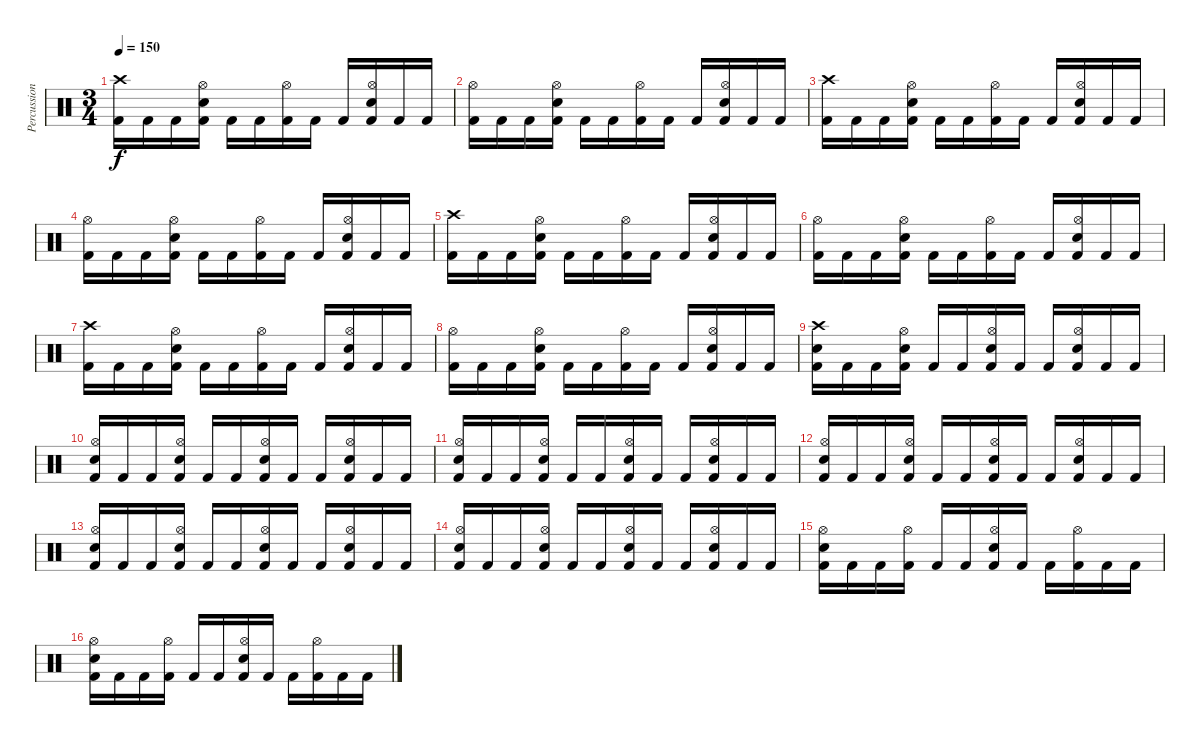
\track ("Percussion" "Percussion") {instrument percussion}
\staff {score}
\articulation defaults
\ts (3 4)
\tempo 150
\clef neutral
\ks c
("Crash high (hit)" "Kick (hit) 2").16{dy f} "Kick (hit) 2".16 "Kick (hit) 2".16 ("Hi-Hat (open)" "Electric Snare (hit)" "Kick (hit) 2").16 "Kick (hit) 2".16 "Kick (hit) 2".16 ("Hi-Hat (open)" "Kick (hit) 2").16 "Kick (hit) 2".16 "Kick (hit) 2".16 ("Hi-Hat (open)" "Electric Snare (hit)" "Kick (hit) 2").16 "Kick (hit) 2".16 "Kick (hit) 2".16 |
("Hi-Hat (open)" "Kick (hit) 2").16 "Kick (hit) 2".16 "Kick (hit) 2".16 ("Hi-Hat (open)" "Electric Snare (hit)" "Kick (hit) 2").16 "Kick (hit) 2".16 "Kick (hit) 2".16 ("Hi-Hat (open)" "Kick (hit) 2").16 "Kick (hit) 2".16 "Kick (hit) 2".16 ("Hi-Hat (open)" "Electric Snare (hit)" "Kick (hit) 2").16 "Kick (hit) 2".16 "Kick (hit) 2".16 |
("Crash high (hit)" "Kick (hit) 2").16 "Kick (hit) 2".16 "Kick (hit) 2".16 ("Hi-Hat (open)" "Electric Snare (hit)" "Kick (hit) 2").16 "Kick (hit) 2".16 "Kick (hit) 2".16 ("Hi-Hat (open)" "Kick (hit) 2").16 "Kick (hit) 2".16 "Kick (hit) 2".16 ("Hi-Hat (open)" "Electric Snare (hit)" "Kick (hit) 2").16 "Kick (hit) 2".16 "Kick (hit) 2".16 |
("Hi-Hat (open)" "Kick (hit) 2").16 "Kick (hit) 2".16 "Kick (hit) 2".16 ("Hi-Hat (open)" "Electric Snare (hit)" "Kick (hit) 2").16 "Kick (hit) 2".16 "Kick (hit) 2".16 ("Hi-Hat (open)" "Kick (hit) 2").16 "Kick (hit) 2".16 "Kick (hit) 2".16 ("Hi-Hat (open)" "Electric Snare (hit)" "Kick (hit) 2").16 "Kick (hit) 2".16 "Kick (hit) 2".16 |
("Crash high (hit)" "Kick (hit) 2").16 "Kick (hit) 2".16 "Kick (hit) 2".16 ("Hi-Hat (open)" "Electric Snare (hit)" "Kick (hit) 2").16 "Kick (hit) 2".16 "Kick (hit) 2".16 ("Hi-Hat (open)" "Kick (hit) 2").16 "Kick (hit) 2".16 "Kick (hit) 2".16 ("Hi-Hat (open)" "Electric Snare (hit)" "Kick (hit) 2").16 "Kick (hit) 2".16 "Kick (hit) 2".16 |
("Hi-Hat (open)" "Kick (hit) 2").16 "Kick (hit) 2".16 "Kick (hit) 2".16 ("Hi-Hat (open)" "Electric Snare (hit)" "Kick (hit) 2").16 "Kick (hit) 2".16 "Kick (hit) 2".16 ("Hi-Hat (open)" "Kick (hit) 2").16 "Kick (hit) 2".16 "Kick (hit) 2".16 ("Hi-Hat (open)" "Electric Snare (hit)" "Kick (hit) 2").16 "Kick (hit) 2".16 "Kick (hit) 2".16 |
("Crash high (hit)" "Kick (hit) 2").16 "Kick (hit) 2".16 "Kick (hit) 2".16 ("Hi-Hat (open)" "Electric Snare (hit)" "Kick (hit) 2").16 "Kick (hit) 2".16 "Kick (hit) 2".16 ("Hi-Hat (open)" "Kick (hit) 2").16 "Kick (hit) 2".16 "Kick (hit) 2".16 ("Hi-Hat (open)" "Electric Snare (hit)" "Kick (hit) 2").16 "Kick (hit) 2".16 "Kick (hit) 2".16 |
("Hi-Hat (open)" "Kick (hit) 2").16 "Kick (hit) 2".16 "Kick (hit) 2".16 ("Hi-Hat (open)" "Electric Snare (hit)" "Kick (hit) 2").16 "Kick (hit) 2".16 "Kick (hit) 2".16 ("Hi-Hat (open)" "Kick (hit) 2").16 "Kick (hit) 2".16 "Kick (hit) 2".16 ("Hi-Hat (open)" "Electric Snare (hit)" "Kick (hit) 2").16 "Kick (hit) 2".16 "Kick (hit) 2".16 |
("Crash high (hit)" "Electric Snare (hit)" "Kick (hit) 2").16 "Kick (hit) 2".16 "Kick (hit) 2".16 ("Hi-Hat (open)" "Electric Snare (hit)" "Kick (hit) 2").16 "Kick (hit) 2".16 "Kick (hit) 2".16 ("Hi-Hat (open)" "Electric Snare (hit)" "Kick (hit) 2").16 "Kick (hit) 2".16 "Kick (hit) 2".16 ("Hi-Hat (open)" "Electric Snare (hit)" "Kick (hit) 2").16 "Kick (hit) 2".16 "Kick (hit) 2".16 |
("Hi-Hat (open)" "Electric Snare (hit)" "Kick (hit) 2").16 "Kick (hit) 2".16 "Kick (hit) 2".16 ("Hi-Hat (open)" "Electric Snare (hit)" "Kick (hit) 2").16 "Kick (hit) 2".16 "Kick (hit) 2".16 ("Hi-Hat (open)" "Electric Snare (hit)" "Kick (hit) 2").16 "Kick (hit) 2".16 "Kick (hit) 2".16 ("Hi-Hat (open)" "Electric Snare (hit)" "Kick (hit) 2").16 "Kick (hit) 2".16 "Kick (hit) 2".16 |
("Hi-Hat (open)" "Electric Snare (hit)" "Kick (hit) 2").16 "Kick (hit) 2".16 "Kick (hit) 2".16 ("Hi-Hat (open)" "Electric Snare (hit)" "Kick (hit) 2").16 "Kick (hit) 2".16 "Kick (hit) 2".16 ("Hi-Hat (open)" "Electric Snare (hit)" "Kick (hit) 2").16 "Kick (hit) 2".16 "Kick (hit) 2".16 ("Hi-Hat (open)" "Electric Snare (hit)" "Kick (hit) 2").16 "Kick (hit) 2".16 "Kick (hit) 2".16 |
("Hi-Hat (open)" "Electric Snare (hit)" "Kick (hit) 2").16 "Kick (hit) 2".16 "Kick (hit) 2".16 ("Hi-Hat (open)" "Electric Snare (hit)" "Kick (hit) 2").16 "Kick (hit) 2".16 "Kick (hit) 2".16 ("Hi-Hat (open)" "Electric Snare (hit)" "Kick (hit) 2").16 "Kick (hit) 2".16 "Kick (hit) 2".16 ("Hi-Hat (open)" "Electric Snare (hit)" "Kick (hit) 2").16 "Kick (hit) 2".16 "Kick (hit) 2".16 |
("Hi-Hat (open)" "Electric Snare (hit)" "Kick (hit) 2").16 "Kick (hit) 2".16 "Kick (hit) 2".16 ("Hi-Hat (open)" "Electric Snare (hit)" "Kick (hit) 2").16 "Kick (hit) 2".16 "Kick (hit) 2".16 ("Hi-Hat (open)" "Electric Snare (hit)" "Kick (hit) 2").16 "Kick (hit) 2".16 "Kick (hit) 2".16 ("Hi-Hat (open)" "Electric Snare (hit)" "Kick (hit) 2").16 "Kick (hit) 2".16 "Kick (hit) 2".16 |
("Hi-Hat (open)" "Electric Snare (hit)" "Kick (hit) 2").16 "Kick (hit) 2".16 "Kick (hit) 2".16 ("Hi-Hat (open)" "Electric Snare (hit)" "Kick (hit) 2").16 "Kick (hit) 2".16 "Kick (hit) 2".16 ("Hi-Hat (open)" "Electric Snare (hit)" "Kick (hit) 2").16 "Kick (hit) 2".16 "Kick (hit) 2".16 ("Hi-Hat (open)" "Electric Snare (hit)" "Kick (hit) 2").16 "Kick (hit) 2".16 "Kick (hit) 2".16 |
("Hi-Hat (open)" "Electric Snare (hit)" "Kick (hit) 2").16 "Kick (hit) 2".16 "Kick (hit) 2".16 ("Hi-Hat (open)" "Kick (hit) 2").16 "Kick (hit) 2".16 "Kick (hit) 2".16 ("Hi-Hat (open)" "Electric Snare (hit)" "Kick (hit) 2").16 "Kick (hit) 2".16 "Kick (hit) 2".16 ("Hi-Hat (open)" "Kick (hit) 2").16 "Kick (hit) 2".16 "Kick (hit) 2".16 |
("Hi-Hat (open)" "Electric Snare (hit)" "Kick (hit) 2").16 "Kick (hit) 2".16 "Kick (hit) 2".16 ("Hi-Hat (open)" "Kick (hit) 2").16 "Kick (hit) 2".16 "Kick (hit) 2".16 ("Hi-Hat (open)" "Electric Snare (hit)" "Kick (hit) 2").16 "Kick (hit) 2".16 "Kick (hit) 2".16 ("Hi-Hat (open)" "Kick (hit) 2").16 "Kick (hit) 2".16 "Kick (hit) 2".16
